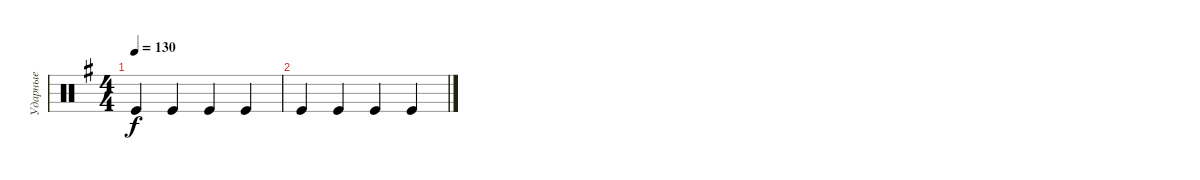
\track ("Ударные" "Ударные") {instrument percussion}
\staff {score}
\articulation defaults
\ts (4 4)
\tempo 130
\clef neutral
\ks g "Kick (hit)".4{dy f} "Kick (hit)".4 "Kick (hit)".4 "Kick (hit)".4
|
"Kick (hit)".4 "Kick (hit)".4 "Kick (hit)".4 "Kick (hit)".4
